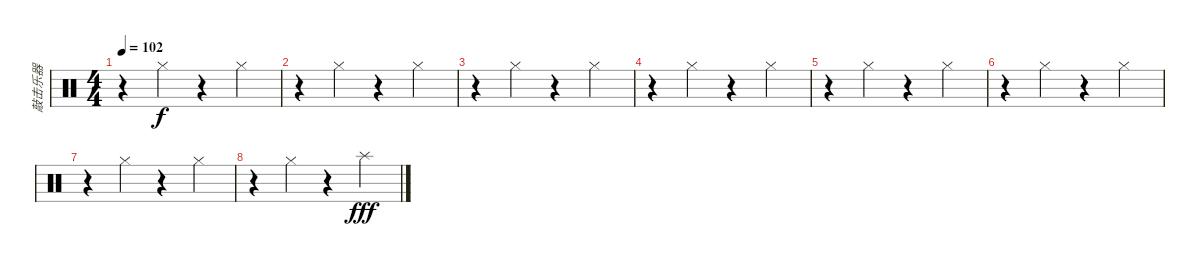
\track ("敲击乐器" "敲击乐器") {instrument percussion}
\staff {score}
\articulation defaults
\ts (4 4)
\tempo 102
\clef neutral
\ks c
r.4{dy f} "Hi-Hat (closed)".4 r.4 "Hi-Hat (closed)".4 |
r.4 "Hi-Hat (closed)".4 r.4 "Hi-Hat (closed)".4 |
r.4 "Hi-Hat (closed)".4 r.4 "Hi-Hat (closed)".4 |
r.4 "Hi-Hat (closed)".4 r.4 "Hi-Hat (closed)".4 |
r.4 "Hi-Hat (closed)".4 r.4 "Hi-Hat (closed)".4 |
r.4 "Hi-Hat (closed)".4 r.4 "Hi-Hat (closed)".4 |
r.4 "Hi-Hat (closed)".4 r.4 "Hi-Hat (closed)".4 |
r.4 "Hi-Hat (closed)".4 r.4 "Splash (hit)".4{dy fff}
